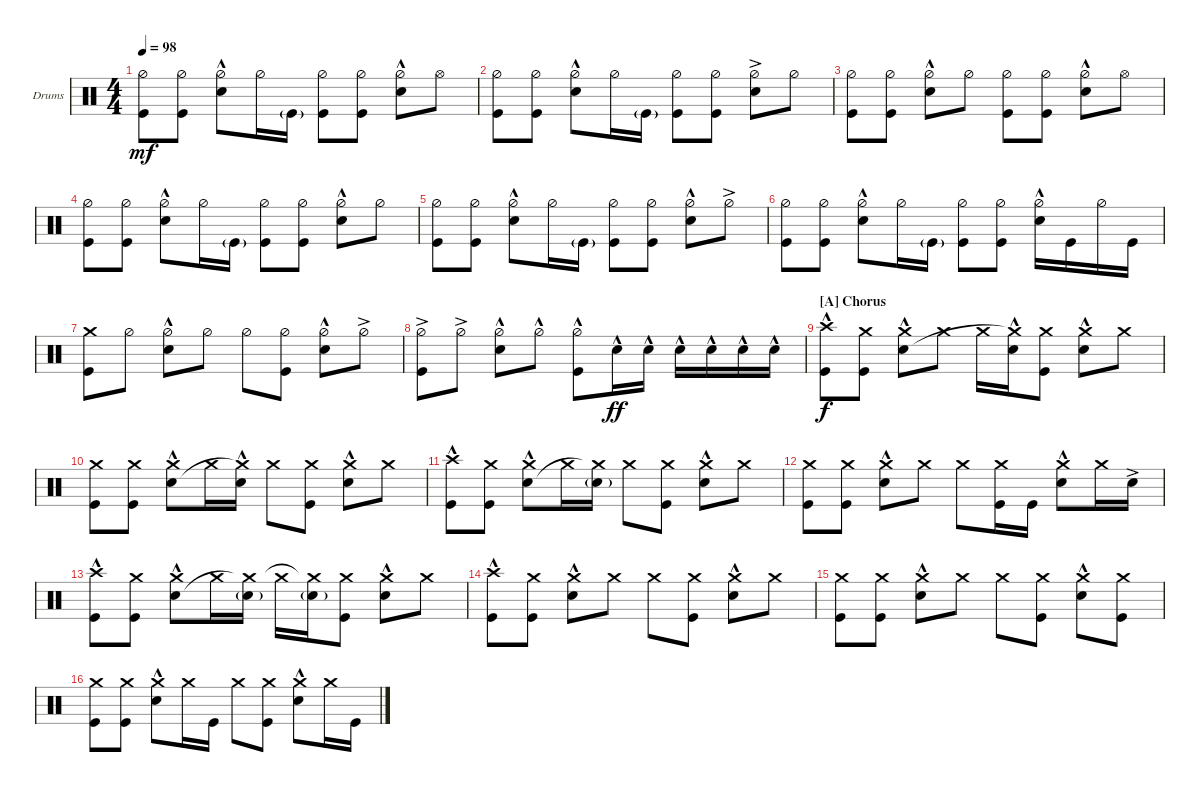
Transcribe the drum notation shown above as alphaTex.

\defaultSystemsLayout 4
\bracketExtendMode groupsimilarinstruments
\firstSystemTrackNameOrientation horizontal
\otherSystemsTrackNameOrientation horizontal
\track ("Drumkit (Chad Smith)" "Drums") {instrument percussion}
\staff {score}
\articulation defaults
\ts (4 4)
\tempo 98
\clef neutral
\ks c
("Kick (hit)" "Hi-Hat (half)").8{dy mf} ("Kick (hit)" "Hi-Hat (half)").8 ("Snare (hit) 2"{hac} "Hi-Hat (half)").8 "Hi-Hat (half)".16 "Kick (hit)"{g}.16 ("Kick (hit)" "Hi-Hat (half)").8 ("Kick (hit)" "Hi-Hat (half)").8 ("Snare (hit) 2"{hac} "Hi-Hat (half)").8 "Hi-Hat (open)".8 |
("Kick (hit)" "Hi-Hat (half)").8 ("Kick (hit)" "Hi-Hat (half)").8 ("Snare (hit) 2"{hac} "Hi-Hat (half)").8 "Hi-Hat (half)".16 "Kick (hit)"{g}.16 ("Kick (hit)" "Hi-Hat (half)").8 ("Kick (hit)" "Hi-Hat (half)").8 ("Snare (hit) 2"{ac} "Hi-Hat (half)").8 "Hi-Hat (half)".8 |
\scale
0.333333 ("Kick (hit)" "Hi-Hat (half)").8 ("Kick (hit)" "Hi-Hat (half)").8 ("Snare (hit) 2"{hac} "Hi-Hat (half)").8 "Hi-Hat (half)".8 ("Kick (hit)" "Hi-Hat (half)").8 ("Kick (hit)" "Hi-Hat (half)").8 ("Snare (hit) 2"{hac} "Hi-Hat (half)").8 "Hi-Hat (open)".8 |
\scale
0.333333 ("Kick (hit)" "Hi-Hat (half)").8 ("Kick (hit)" "Hi-Hat (half)").8 ("Snare (hit) 2"{hac} "Hi-Hat (half)").8 "Hi-Hat (half)".16 "Kick (hit)"{g}.16 ("Kick (hit)" "Hi-Hat (half)").8 ("Kick (hit)" "Hi-Hat (half)").8 ("Snare (hit) 2"{hac} "Hi-Hat (half)").8 "Hi-Hat (half)".8 |
\scale
0.333333 ("Kick (hit)" "Hi-Hat (half)").8 ("Kick (hit)" "Hi-Hat (half)").8 ("Snare (hit) 2"{hac} "Hi-Hat (half)").8 "Hi-Hat (half)".16 "Kick (hit)"{g}.16 ("Kick (hit)" "Hi-Hat (half)").8 ("Kick (hit)" "Hi-Hat (half)").8 ("Snare (hit) 2"{hac} "Hi-Hat (half)").8 "Hi-Hat (half)"{ac}.8 |
\scale
0.333333 ("Kick (hit)" "Hi-Hat (half)").8 ("Kick (hit)" "Hi-Hat (half)").8 ("Snare (hit) 2"{hac} "Hi-Hat (half)").8 "Hi-Hat (half)".16 "Kick (hit)"{g}.16 ("Kick (hit)" "Hi-Hat (half)").8 ("Kick (hit)" "Hi-Hat (half)").8 ("Snare (hit) 2"{hac} "Hi-Hat (half)").16 "Kick (hit)".16 "Hi-Hat (half)".16 "Kick (hit)".16 |
\scale
0.333333 ("Kick (hit)" "Crash medium (hit)").8 "Hi-Hat (half)".8 ("Snare (hit) 2"{hac} "Hi-Hat (half)").8 "Hi-Hat (half)".8 "Hi-Hat (half)".8 ("Kick (hit)" "Hi-Hat (half)").8 ("Snare (hit) 2"{hac} "Hi-Hat (half)").8 "Hi-Hat (half)"{ac}.8 |
\scale
0.333333 ("Kick (hit)" "Hi-Hat (half)"{ac}).8 "Hi-Hat (half)"{ac}.8 ("Snare (hit) 2"{hac} "Hi-Hat (half)"{hac}).8 "Hi-Hat (half)"{hac}.8 ("Hi-Hat (half)"{hac} "Kick (hit)").8 "Snare (hit) 2"{hac}.16{dy ff} "Snare (hit) 2"{hac}.16 "Snare (hit) 2"{hac}.16 "Snare (hit) 2"{hac}.16 "Snare (hit) 2"{hac}.16 "Snare (hit) 2"{hac}.16 |
\section ("A" "Chorus")
\scale
0.333333 ("Kick (hit)" "Crash high (hit)"{hac}).8{dy f} ("Crash medium (hit)" "Kick (hit)").8 ("Crash medium (hit)" "Snare (hit) 2"{hac}).8 "Crash medium (hit)".8 "Crash medium (hit)".16 ("Snare (hit) 2"{hac} "Crash medium (hit)"{t}).16 ("Crash medium (hit)" "Kick (hit)").8 ("Crash medium (hit)" "Snare (hit) 2"{hac}).8 "Crash medium (hit)".8 |
\scale
0.333333 ("Crash medium (hit)" "Kick (hit)").8 ("Crash medium (hit)" "Kick (hit)").8 ("Crash medium (hit)" "Snare (hit) 2"{hac}).8 "Crash medium (hit)".16 ("Snare (hit) 2"{hac} "Crash medium (hit)"{t}).16 "Crash medium (hit)".8 ("Crash medium (hit)" "Kick (hit)").8 ("Crash medium (hit)" "Snare (hit) 2"{hac}).8 "Crash medium (hit)".8 |
\scale
0.333333 ("Kick (hit)" "Crash high (hit)"{hac}).8 ("Crash medium (hit)" "Kick (hit)").8 ("Crash medium (hit)" "Snare (hit) 2"{hac}).8 "Crash medium (hit)".16 ("Snare (hit) 2"{g} "Crash medium (hit)"{t}).16 "Crash medium (hit)".8 ("Crash medium (hit)" "Kick (hit)").8 ("Crash medium (hit)" "Snare (hit) 2"{hac}).8 "Crash medium (hit)".8 |
\scale
0.333333 ("Crash medium (hit)" "Kick (hit)").8 ("Crash medium (hit)" "Kick (hit)").8 ("Crash medium (hit)" "Snare (hit) 2"{hac}).8 "Crash medium (hit)".8 "Crash medium (hit)".8 ("Crash medium (hit)" "Kick (hit)").16 "Kick (hit)".16 ("Crash medium (hit)" "Snare (hit) 2"{hac}).8 "Crash medium (hit)".16 "Snare (hit) 2"{ac}.16 |
\scale
0.333333 ("Kick (hit)" "Crash high (hit)"{hac}).8 ("Crash medium (hit)" "Kick (hit)").8 ("Crash medium (hit)" "Snare (hit) 2"{hac}).8 "Crash medium (hit)".16 ("Snare (hit) 2"{g} "Crash medium (hit)"{t}).16 "Crash medium (hit)".16 ("Snare (hit) 2"{g} "Crash medium (hit)"{t}).16 ("Crash medium (hit)" "Kick (hit)").8 ("Crash medium (hit)" "Snare (hit) 2"{hac}).8 "Crash medium (hit)".8 |
\scale
0.333333 ("Kick (hit)" "Crash high (hit)"{hac}).8 ("Crash medium (hit)" "Kick (hit)").8 ("Crash medium (hit)" "Snare (hit) 2"{hac}).8 "Crash medium (hit)".8 "Crash medium (hit)".8 ("Crash medium (hit)" "Kick (hit)").8 ("Crash medium (hit)" "Snare (hit) 2"{hac}).8 "Crash medium (hit)".8 |
\scale
0.333333 ("Kick (hit)" "Crash medium (hit)").8 ("Crash medium (hit)" "Kick (hit)").8 ("Crash medium (hit)" "Snare (hit) 2"{hac}).8 "Crash medium (hit)".8 "Crash medium (hit)".8 ("Crash medium (hit)" "Kick (hit)").8 ("Crash medium (hit)" "Snare (hit) 2"{hac}).8 ("Crash medium (hit)" "Kick (hit)").8 |
\scale
0.333333 ("Kick (hit)" "Crash medium (hit)").8 ("Crash medium (hit)" "Kick (hit)").8 ("Crash medium (hit)" "Snare (hit) 2"{hac}).8 "Crash medium (hit)".16 "Kick (hit)".16 "Crash medium (hit)".8 ("Crash medium (hit)" "Kick (hit)").8 ("Crash medium (hit)" "Snare (hit) 2"{hac}).8 "Crash medium (hit)".16 "Kick (hit)".16
